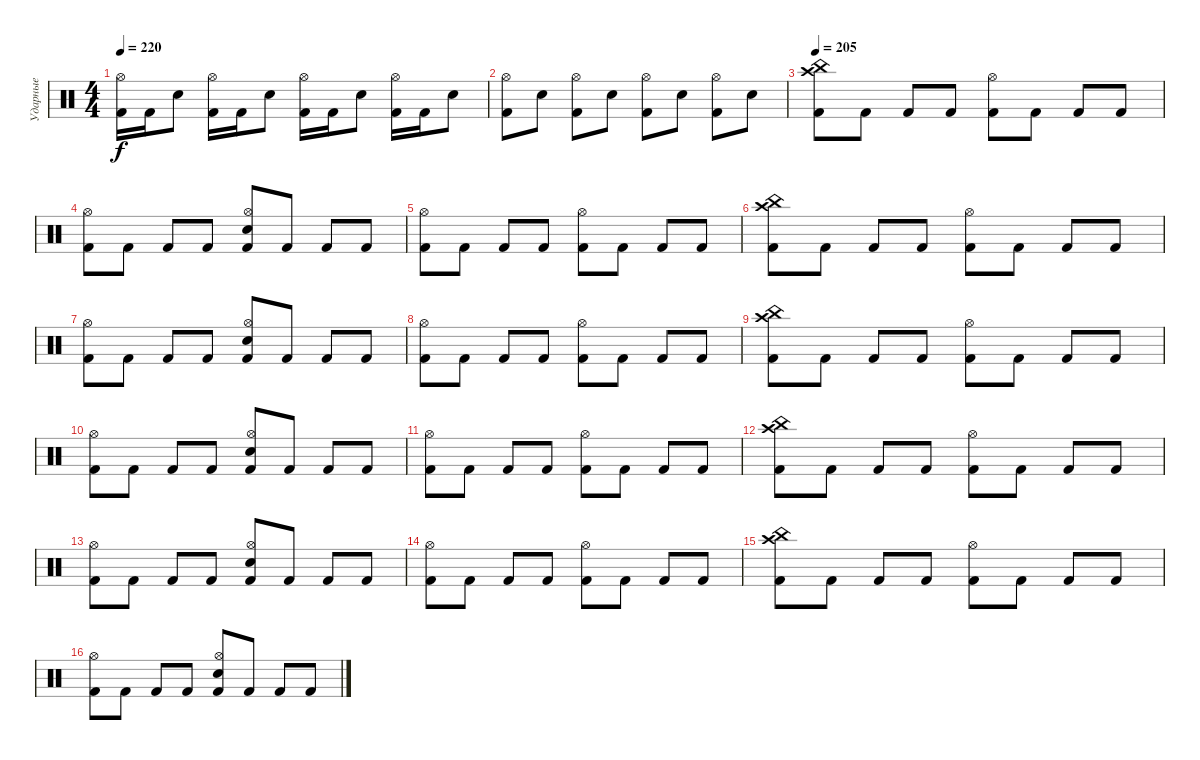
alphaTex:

\track ("Ударные" "Ударные") {instrument percussion}
\staff {score}
\articulation defaults
\ts (4 4)
\tempo 220
\clef neutral
\ks c
("Kick (hit) 2" "Hi-Hat (open)").16{dy f} "Kick (hit) 2".16 "Electric Snare (hit)".8 ("Kick (hit) 2" "Hi-Hat (open)").16 "Kick (hit) 2".16 "Electric Snare (hit)".8 ("Kick (hit) 2" "Hi-Hat (open)").16 "Kick (hit) 2".16 "Electric Snare (hit)".8 ("Kick (hit) 2" "Hi-Hat (open)").16 "Kick (hit) 2".16 "Electric Snare (hit)".8 |
("Kick (hit) 2" "Hi-Hat (open)").8 "Electric Snare (hit)".8 ("Kick (hit) 2" "Hi-Hat (open)").8 "Electric Snare (hit)".8 ("Kick (hit) 2" "Hi-Hat (open)").8 "Electric Snare (hit)".8 ("Kick (hit) 2" "Hi-Hat (open)").8 "Electric Snare (hit)".8 |
\tempo 205
("Kick (hit) 2" "Crash high (hit)" "China (hit)").8 "Kick (hit) 2".8 "Kick (hit) 2".8 "Kick (hit) 2".8 ("Kick (hit) 2" "Hi-Hat (open)").8 "Kick (hit) 2".8 "Kick (hit) 2".8 "Kick (hit) 2".8 |
("Kick (hit) 2" "Hi-Hat (open)").8 "Kick (hit) 2".8 "Kick (hit) 2".8 "Kick (hit) 2".8 ("Kick (hit) 2" "Electric Snare (hit)" "Hi-Hat (open)").8 "Kick (hit) 2".8 "Kick (hit) 2".8 "Kick (hit) 2".8 |
("Kick (hit) 2" "Hi-Hat (open)").8 "Kick (hit) 2".8 "Kick (hit) 2".8 "Kick (hit) 2".8 ("Kick (hit) 2" "Hi-Hat (open)").8 "Kick (hit) 2".8 "Kick (hit) 2".8 "Kick (hit) 2".8 |
("Kick (hit) 2" "Crash high (hit)" "China (hit)").8 "Kick (hit) 2".8 "Kick (hit) 2".8 "Kick (hit) 2".8 ("Kick (hit) 2" "Hi-Hat (open)").8 "Kick (hit) 2".8 "Kick (hit) 2".8 "Kick (hit) 2".8 |
("Kick (hit) 2" "Hi-Hat (open)").8 "Kick (hit) 2".8 "Kick (hit) 2".8 "Kick (hit) 2".8 ("Kick (hit) 2" "Electric Snare (hit)" "Hi-Hat (open)").8 "Kick (hit) 2".8 "Kick (hit) 2".8 "Kick (hit) 2".8 |
("Kick (hit) 2" "Hi-Hat (open)").8 "Kick (hit) 2".8 "Kick (hit) 2".8 "Kick (hit) 2".8 ("Kick (hit) 2" "Hi-Hat (open)").8 "Kick (hit) 2".8 "Kick (hit) 2".8 "Kick (hit) 2".8 |
("Kick (hit) 2" "Crash high (hit)" "China (hit)").8 "Kick (hit) 2".8 "Kick (hit) 2".8 "Kick (hit) 2".8 ("Kick (hit) 2" "Hi-Hat (open)").8 "Kick (hit) 2".8 "Kick (hit) 2".8 "Kick (hit) 2".8 |
("Kick (hit) 2" "Hi-Hat (open)").8 "Kick (hit) 2".8 "Kick (hit) 2".8 "Kick (hit) 2".8 ("Kick (hit) 2" "Electric Snare (hit)" "Hi-Hat (open)").8 "Kick (hit) 2".8 "Kick (hit) 2".8 "Kick (hit) 2".8 |
("Kick (hit) 2" "Hi-Hat (open)").8 "Kick (hit) 2".8 "Kick (hit) 2".8 "Kick (hit) 2".8 ("Kick (hit) 2" "Hi-Hat (open)").8 "Kick (hit) 2".8 "Kick (hit) 2".8 "Kick (hit) 2".8 |
("Kick (hit) 2" "Crash high (hit)" "China (hit)").8 "Kick (hit) 2".8 "Kick (hit) 2".8 "Kick (hit) 2".8 ("Kick (hit) 2" "Hi-Hat (open)").8 "Kick (hit) 2".8 "Kick (hit) 2".8 "Kick (hit) 2".8 |
("Kick (hit) 2" "Hi-Hat (open)").8 "Kick (hit) 2".8 "Kick (hit) 2".8 "Kick (hit) 2".8 ("Kick (hit) 2" "Electric Snare (hit)" "Hi-Hat (open)").8 "Kick (hit) 2".8 "Kick (hit) 2".8 "Kick (hit) 2".8 |
("Kick (hit) 2" "Hi-Hat (open)").8 "Kick (hit) 2".8 "Kick (hit) 2".8 "Kick (hit) 2".8 ("Kick (hit) 2" "Hi-Hat (open)").8 "Kick (hit) 2".8 "Kick (hit) 2".8 "Kick (hit) 2".8 |
("Kick (hit) 2" "Crash high (hit)" "China (hit)").8 "Kick (hit) 2".8 "Kick (hit) 2".8 "Kick (hit) 2".8 ("Kick (hit) 2" "Hi-Hat (open)").8 "Kick (hit) 2".8 "Kick (hit) 2".8 "Kick (hit) 2".8 |
("Kick (hit) 2" "Hi-Hat (open)").8 "Kick (hit) 2".8 "Kick (hit) 2".8 "Kick (hit) 2".8 ("Kick (hit) 2" "Electric Snare (hit)" "Hi-Hat (open)").8 "Kick (hit) 2".8 "Kick (hit) 2".8 "Kick (hit) 2".8
